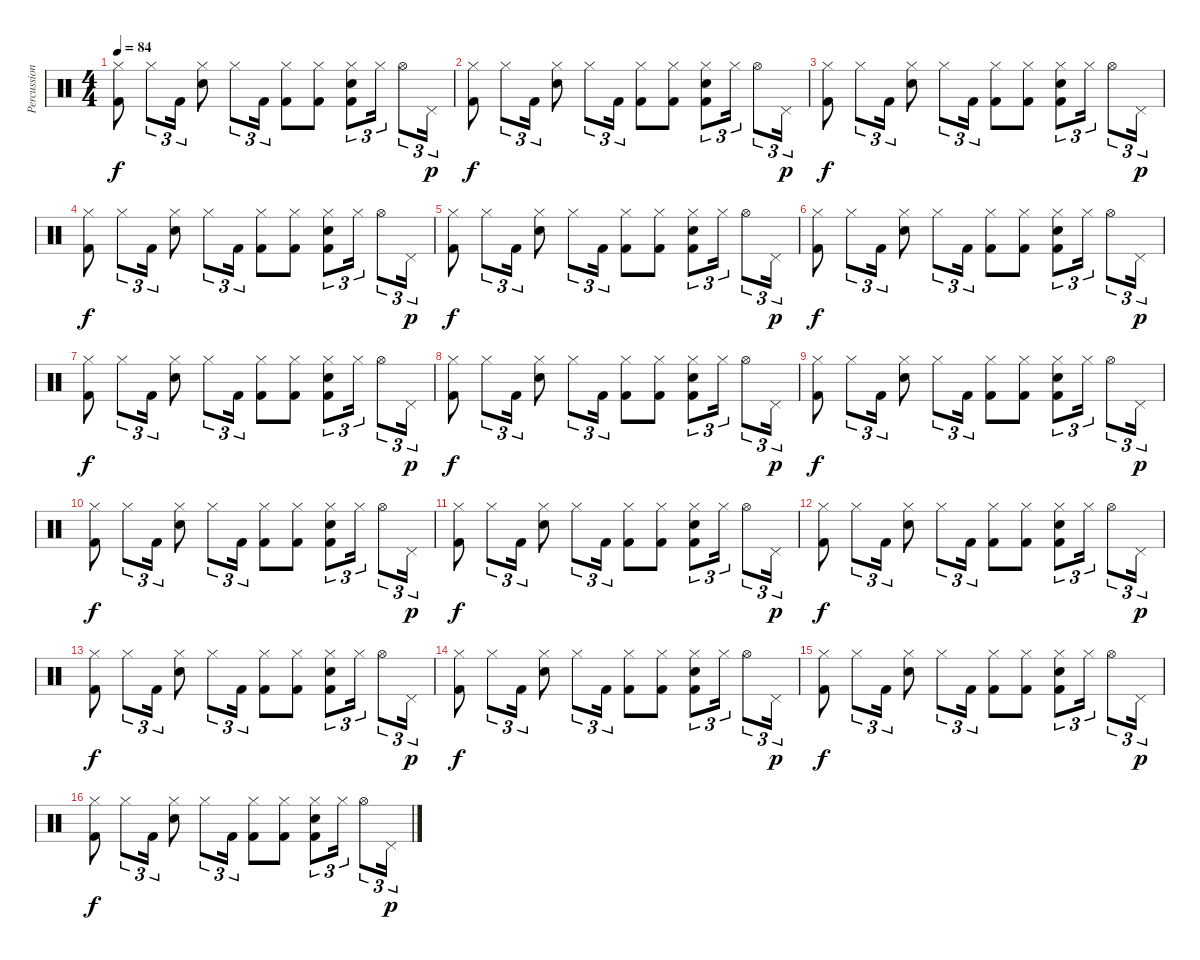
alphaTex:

\track ("Percussion" "Percussion") {instrument percussion}
\staff {score}
\articulation defaults
\ts (4 4)
\tempo 84
\clef neutral
\ks c
("Hi-Hat (closed)" "Kick (hit) 2").8{dy f} "Hi-Hat (closed)".8{tu (3 2)} "Kick (hit) 2".16{tu (3 2)} ("Hi-Hat (closed)" "Electric Snare (hit)").8 "Hi-Hat (closed)".8{tu (3 2)} "Kick (hit) 2".16{tu (3 2)} ("Hi-Hat (closed)" "Kick (hit) 2").8 ("Hi-Hat (closed)" "Kick (hit) 2").8 ("Hi-Hat (closed)" "Electric Snare (hit)" "Kick (hit) 2").8{tu (3 2)} "Hi-Hat (closed)".16{tu (3 2)} "Hi-Hat (open)".8{tu (3 2)} "Pedal Hi-Hat (hit)".16{tu (3 2) dy p} |
("Hi-Hat (closed)" "Kick (hit) 2").8{dy f} "Hi-Hat (closed)".8{tu (3 2)} "Kick (hit) 2".16{tu (3 2)} ("Hi-Hat (closed)" "Electric Snare (hit)").8 "Hi-Hat (closed)".8{tu (3 2)} "Kick (hit) 2".16{tu (3 2)} ("Hi-Hat (closed)" "Kick (hit) 2").8 ("Hi-Hat (closed)" "Kick (hit) 2").8 ("Hi-Hat (closed)" "Electric Snare (hit)" "Kick (hit) 2").8{tu (3 2)} "Hi-Hat (closed)".16{tu (3 2)} "Hi-Hat (open)".8{tu (3 2)} "Pedal Hi-Hat (hit)".16{tu (3 2) dy p} |
("Hi-Hat (closed)" "Kick (hit) 2").8{dy f} "Hi-Hat (closed)".8{tu (3 2)} "Kick (hit) 2".16{tu (3 2)} ("Hi-Hat (closed)" "Electric Snare (hit)").8 "Hi-Hat (closed)".8{tu (3 2)} "Kick (hit) 2".16{tu (3 2)} ("Hi-Hat (closed)" "Kick (hit) 2").8 ("Hi-Hat (closed)" "Kick (hit) 2").8 ("Hi-Hat (closed)" "Electric Snare (hit)" "Kick (hit) 2").8{tu (3 2)} "Hi-Hat (closed)".16{tu (3 2)} "Hi-Hat (open)".8{tu (3 2)} "Pedal Hi-Hat (hit)".16{tu (3 2) dy p} |
("Hi-Hat (closed)" "Kick (hit) 2").8{dy f} "Hi-Hat (closed)".8{tu (3 2)} "Kick (hit) 2".16{tu (3 2)} ("Hi-Hat (closed)" "Electric Snare (hit)").8 "Hi-Hat (closed)".8{tu (3 2)} "Kick (hit) 2".16{tu (3 2)} ("Hi-Hat (closed)" "Kick (hit) 2").8 ("Hi-Hat (closed)" "Kick (hit) 2").8 ("Hi-Hat (closed)" "Electric Snare (hit)" "Kick (hit) 2").8{tu (3 2)} "Hi-Hat (closed)".16{tu (3 2)} "Hi-Hat (open)".8{tu (3 2)} "Pedal Hi-Hat (hit)".16{tu (3 2) dy p} |
("Hi-Hat (closed)" "Kick (hit) 2").8{dy f} "Hi-Hat (closed)".8{tu (3 2)} "Kick (hit) 2".16{tu (3 2)} ("Hi-Hat (closed)" "Electric Snare (hit)").8 "Hi-Hat (closed)".8{tu (3 2)} "Kick (hit) 2".16{tu (3 2)} ("Hi-Hat (closed)" "Kick (hit) 2").8 ("Hi-Hat (closed)" "Kick (hit) 2").8 ("Hi-Hat (closed)" "Electric Snare (hit)" "Kick (hit) 2").8{tu (3 2)} "Hi-Hat (closed)".16{tu (3 2)} "Hi-Hat (open)".8{tu (3 2)} "Pedal Hi-Hat (hit)".16{tu (3 2) dy p} |
("Hi-Hat (closed)" "Kick (hit) 2").8{dy f} "Hi-Hat (closed)".8{tu (3 2)} "Kick (hit) 2".16{tu (3 2)} ("Hi-Hat (closed)" "Electric Snare (hit)").8 "Hi-Hat (closed)".8{tu (3 2)} "Kick (hit) 2".16{tu (3 2)} ("Hi-Hat (closed)" "Kick (hit) 2").8 ("Hi-Hat (closed)" "Kick (hit) 2").8 ("Hi-Hat (closed)" "Electric Snare (hit)" "Kick (hit) 2").8{tu (3 2)} "Hi-Hat (closed)".16{tu (3 2)} "Hi-Hat (open)".8{tu (3 2)} "Pedal Hi-Hat (hit)".16{tu (3 2) dy p} |
("Hi-Hat (closed)" "Kick (hit) 2").8{dy f} "Hi-Hat (closed)".8{tu (3 2)} "Kick (hit) 2".16{tu (3 2)} ("Hi-Hat (closed)" "Electric Snare (hit)").8 "Hi-Hat (closed)".8{tu (3 2)} "Kick (hit) 2".16{tu (3 2)} ("Hi-Hat (closed)" "Kick (hit) 2").8 ("Hi-Hat (closed)" "Kick (hit) 2").8 ("Hi-Hat (closed)" "Electric Snare (hit)" "Kick (hit) 2").8{tu (3 2)} "Hi-Hat (closed)".16{tu (3 2)} "Hi-Hat (open)".8{tu (3 2)} "Pedal Hi-Hat (hit)".16{tu (3 2) dy p} |
("Hi-Hat (closed)" "Kick (hit) 2").8{dy f} "Hi-Hat (closed)".8{tu (3 2)} "Kick (hit) 2".16{tu (3 2)} ("Hi-Hat (closed)" "Electric Snare (hit)").8 "Hi-Hat (closed)".8{tu (3 2)} "Kick (hit) 2".16{tu (3 2)} ("Hi-Hat (closed)" "Kick (hit) 2").8 ("Hi-Hat (closed)" "Kick (hit) 2").8 ("Hi-Hat (closed)" "Electric Snare (hit)" "Kick (hit) 2").8{tu (3 2)} "Hi-Hat (closed)".16{tu (3 2)} "Hi-Hat (open)".8{tu (3 2)} "Pedal Hi-Hat (hit)".16{tu (3 2) dy p} |
("Hi-Hat (closed)" "Kick (hit) 2").8{dy f} "Hi-Hat (closed)".8{tu (3 2)} "Kick (hit) 2".16{tu (3 2)} ("Hi-Hat (closed)" "Electric Snare (hit)").8 "Hi-Hat (closed)".8{tu (3 2)} "Kick (hit) 2".16{tu (3 2)} ("Hi-Hat (closed)" "Kick (hit) 2").8 ("Hi-Hat (closed)" "Kick (hit) 2").8 ("Hi-Hat (closed)" "Electric Snare (hit)" "Kick (hit) 2").8{tu (3 2)} "Hi-Hat (closed)".16{tu (3 2)} "Hi-Hat (open)".8{tu (3 2)} "Pedal Hi-Hat (hit)".16{tu (3 2) dy p} |
("Hi-Hat (closed)" "Kick (hit) 2").8{dy f} "Hi-Hat (closed)".8{tu (3 2)} "Kick (hit) 2".16{tu (3 2)} ("Hi-Hat (closed)" "Electric Snare (hit)").8 "Hi-Hat (closed)".8{tu (3 2)} "Kick (hit) 2".16{tu (3 2)} ("Hi-Hat (closed)" "Kick (hit) 2").8 ("Hi-Hat (closed)" "Kick (hit) 2").8 ("Hi-Hat (closed)" "Electric Snare (hit)" "Kick (hit) 2").8{tu (3 2)} "Hi-Hat (closed)".16{tu (3 2)} "Hi-Hat (open)".8{tu (3 2)} "Pedal Hi-Hat (hit)".16{tu (3 2) dy p} |
("Hi-Hat (closed)" "Kick (hit) 2").8{dy f} "Hi-Hat (closed)".8{tu (3 2)} "Kick (hit) 2".16{tu (3 2)} ("Hi-Hat (closed)" "Electric Snare (hit)").8 "Hi-Hat (closed)".8{tu (3 2)} "Kick (hit) 2".16{tu (3 2)} ("Hi-Hat (closed)" "Kick (hit) 2").8 ("Hi-Hat (closed)" "Kick (hit) 2").8 ("Hi-Hat (closed)" "Electric Snare (hit)" "Kick (hit) 2").8{tu (3 2)} "Hi-Hat (closed)".16{tu (3 2)} "Hi-Hat (open)".8{tu (3 2)} "Pedal Hi-Hat (hit)".16{tu (3 2) dy p} |
("Hi-Hat (closed)" "Kick (hit) 2").8{dy f} "Hi-Hat (closed)".8{tu (3 2)} "Kick (hit) 2".16{tu (3 2)} ("Hi-Hat (closed)" "Electric Snare (hit)").8 "Hi-Hat (closed)".8{tu (3 2)} "Kick (hit) 2".16{tu (3 2)} ("Hi-Hat (closed)" "Kick (hit) 2").8 ("Hi-Hat (closed)" "Kick (hit) 2").8 ("Hi-Hat (closed)" "Electric Snare (hit)" "Kick (hit) 2").8{tu (3 2)} "Hi-Hat (closed)".16{tu (3 2)} "Hi-Hat (open)".8{tu (3 2)} "Pedal Hi-Hat (hit)".16{tu (3 2) dy p} |
("Hi-Hat (closed)" "Kick (hit) 2").8{dy f} "Hi-Hat (closed)".8{tu (3 2)} "Kick (hit) 2".16{tu (3 2)} ("Hi-Hat (closed)" "Electric Snare (hit)").8 "Hi-Hat (closed)".8{tu (3 2)} "Kick (hit) 2".16{tu (3 2)} ("Hi-Hat (closed)" "Kick (hit) 2").8 ("Hi-Hat (closed)" "Kick (hit) 2").8 ("Hi-Hat (closed)" "Electric Snare (hit)" "Kick (hit) 2").8{tu (3 2)} "Hi-Hat (closed)".16{tu (3 2)} "Hi-Hat (open)".8{tu (3 2)} "Pedal Hi-Hat (hit)".16{tu (3 2) dy p} |
("Hi-Hat (closed)" "Kick (hit) 2").8{dy f} "Hi-Hat (closed)".8{tu (3 2)} "Kick (hit) 2".16{tu (3 2)} ("Hi-Hat (closed)" "Electric Snare (hit)").8 "Hi-Hat (closed)".8{tu (3 2)} "Kick (hit) 2".16{tu (3 2)} ("Hi-Hat (closed)" "Kick (hit) 2").8 ("Hi-Hat (closed)" "Kick (hit) 2").8 ("Hi-Hat (closed)" "Electric Snare (hit)" "Kick (hit) 2").8{tu (3 2)} "Hi-Hat (closed)".16{tu (3 2)} "Hi-Hat (open)".8{tu (3 2)} "Pedal Hi-Hat (hit)".16{tu (3 2) dy p} |
("Hi-Hat (closed)" "Kick (hit) 2").8{dy f} "Hi-Hat (closed)".8{tu (3 2)} "Kick (hit) 2".16{tu (3 2)} ("Hi-Hat (closed)" "Electric Snare (hit)").8 "Hi-Hat (closed)".8{tu (3 2)} "Kick (hit) 2".16{tu (3 2)} ("Hi-Hat (closed)" "Kick (hit) 2").8 ("Hi-Hat (closed)" "Kick (hit) 2").8 ("Hi-Hat (closed)" "Electric Snare (hit)" "Kick (hit) 2").8{tu (3 2)} "Hi-Hat (closed)".16{tu (3 2)} "Hi-Hat (open)".8{tu (3 2)} "Pedal Hi-Hat (hit)".16{tu (3 2) dy p} |
("Hi-Hat (closed)" "Kick (hit) 2").8{dy f} "Hi-Hat (closed)".8{tu (3 2)} "Kick (hit) 2".16{tu (3 2)} ("Hi-Hat (closed)" "Electric Snare (hit)").8 "Hi-Hat (closed)".8{tu (3 2)} "Kick (hit) 2".16{tu (3 2)} ("Hi-Hat (closed)" "Kick (hit) 2").8 ("Hi-Hat (closed)" "Kick (hit) 2").8 ("Hi-Hat (closed)" "Electric Snare (hit)" "Kick (hit) 2").8{tu (3 2)} "Hi-Hat (closed)".16{tu (3 2)} "Hi-Hat (open)".8{tu (3 2)} "Pedal Hi-Hat (hit)".16{tu (3 2) dy p}
